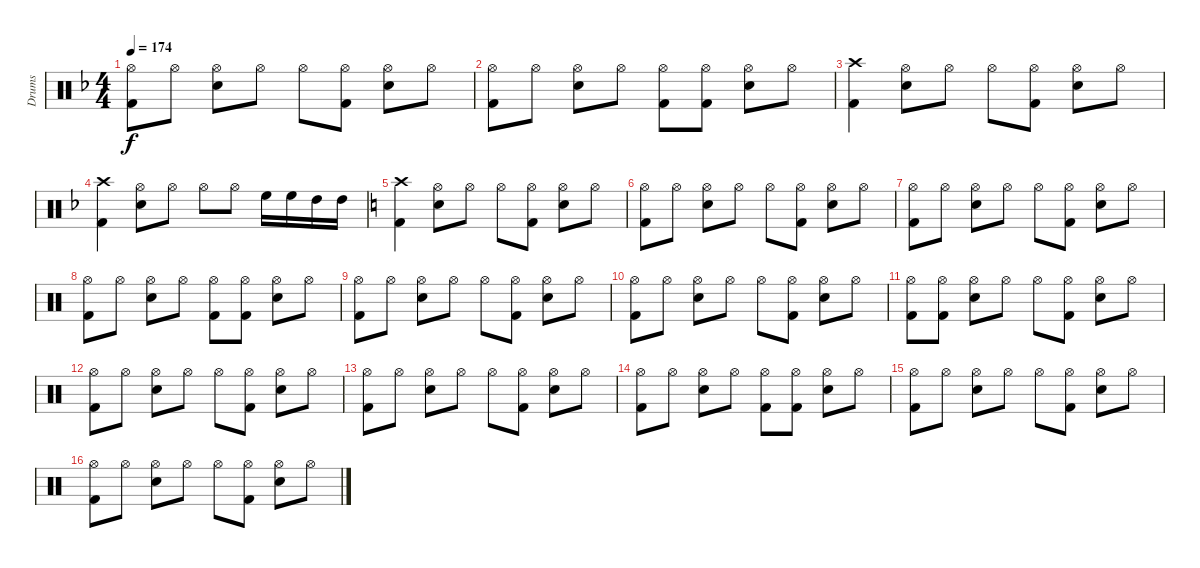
\track ("Drums" "Drums") {instrument percussion}
\staff {score}
\articulation defaults
\ts (4 4)
\tempo 174
\clef neutral
\ks dminor
("Kick (hit) 2" "Hi-Hat (open)").8{dy f} "Hi-Hat (open)".8 ("Snare (hit) 2" "Hi-Hat (open)").8 "Hi-Hat (open)".8 "Hi-Hat (open)".8 ("Kick (hit) 2" "Hi-Hat (open)").8 ("Snare (hit) 2" "Hi-Hat (open)").8 "Hi-Hat (open)".8 |
("Kick (hit) 2" "Hi-Hat (open)").8 "Hi-Hat (open)".8 ("Snare (hit) 2" "Hi-Hat (open)").8 "Hi-Hat (open)".8 ("Kick (hit) 2" "Hi-Hat (open)").8 ("Kick (hit) 2" "Hi-Hat (open)").8 ("Snare (hit) 2" "Hi-Hat (open)").8 "Hi-Hat (open)".8 |
("Kick (hit) 2" "Crash high (hit)").4 ("Snare (hit) 2" "Hi-Hat (open)").8 "Hi-Hat (open)".8 "Hi-Hat (open)".8 ("Kick (hit) 2" "Hi-Hat (open)").8 ("Snare (hit) 2" "Hi-Hat (open)").8 "Hi-Hat (open)".8 |
("Kick (hit) 2" "Crash high (hit)").4 ("Snare (hit) 2" "Hi-Hat (open)").8 "Hi-Hat (open)".8 "Hi-Hat (open)".8 "Hi-Hat (open)".8 "High Floor Tom (hit)".16 "High Floor Tom (hit)".16 "High Tom (hit)".16 "High Tom (hit)".16 |
\ks aminor
("Kick (hit) 2" "Crash high (hit)").4 ("Snare (hit) 2" "Hi-Hat (open)").8 "Hi-Hat (open)".8 "Hi-Hat (open)".8 ("Kick (hit) 2" "Hi-Hat (open)").8 ("Snare (hit) 2" "Hi-Hat (open)").8 "Hi-Hat (open)".8 |
("Kick (hit) 2" "Hi-Hat (open)").8 "Hi-Hat (open)".8 ("Snare (hit) 2" "Hi-Hat (open)").8 "Hi-Hat (open)".8 "Hi-Hat (open)".8 ("Kick (hit) 2" "Hi-Hat (open)").8 ("Snare (hit) 2" "Hi-Hat (open)").8 "Hi-Hat (open)".8 |
("Kick (hit) 2" "Hi-Hat (open)").8 "Hi-Hat (open)".8 ("Snare (hit) 2" "Hi-Hat (open)").8 "Hi-Hat (open)".8 "Hi-Hat (open)".8 ("Kick (hit) 2" "Hi-Hat (open)").8 ("Snare (hit) 2" "Hi-Hat (open)").8 "Hi-Hat (open)".8 |
("Kick (hit) 2" "Hi-Hat (open)").8 "Hi-Hat (open)".8 ("Snare (hit) 2" "Hi-Hat (open)").8 "Hi-Hat (open)".8 ("Kick (hit) 2" "Hi-Hat (open)").8 ("Kick (hit) 2" "Hi-Hat (open)").8 ("Snare (hit) 2" "Hi-Hat (open)").8 "Hi-Hat (open)".8 |
("Kick (hit) 2" "Hi-Hat (open)").8 "Hi-Hat (open)".8 ("Snare (hit) 2" "Hi-Hat (open)").8 "Hi-Hat (open)".8 "Hi-Hat (open)".8 ("Kick (hit) 2" "Hi-Hat (open)").8 ("Snare (hit) 2" "Hi-Hat (open)").8 "Hi-Hat (open)".8 |
("Kick (hit) 2" "Hi-Hat (open)").8 "Hi-Hat (open)".8 ("Snare (hit) 2" "Hi-Hat (open)").8 "Hi-Hat (open)".8 "Hi-Hat (open)".8 ("Kick (hit) 2" "Hi-Hat (open)").8 ("Snare (hit) 2" "Hi-Hat (open)").8 "Hi-Hat (open)".8 |
("Kick (hit) 2" "Hi-Hat (open)").8 ("Kick (hit) 2" "Hi-Hat (open)").8 ("Snare (hit) 2" "Hi-Hat (open)").8 "Hi-Hat (open)".8 "Hi-Hat (open)".8 ("Kick (hit) 2" "Hi-Hat (open)").8 ("Snare (hit) 2" "Hi-Hat (open)").8 "Hi-Hat (open)".8 |
("Kick (hit) 2" "Hi-Hat (open)").8 "Hi-Hat (open)".8 ("Snare (hit) 2" "Hi-Hat (open)").8 "Hi-Hat (open)".8 "Hi-Hat (open)".8 ("Kick (hit) 2" "Hi-Hat (open)").8 ("Snare (hit) 2" "Hi-Hat (open)").8 "Hi-Hat (open)".8 |
("Kick (hit) 2" "Hi-Hat (open)").8 "Hi-Hat (open)".8 ("Snare (hit) 2" "Hi-Hat (open)").8 "Hi-Hat (open)".8 "Hi-Hat (open)".8 ("Kick (hit) 2" "Hi-Hat (open)").8 ("Snare (hit) 2" "Hi-Hat (open)").8 "Hi-Hat (open)".8 |
("Kick (hit) 2" "Hi-Hat (open)").8 "Hi-Hat (open)".8 ("Snare (hit) 2" "Hi-Hat (open)").8 "Hi-Hat (open)".8 ("Kick (hit) 2" "Hi-Hat (open)").8 ("Kick (hit) 2" "Hi-Hat (open)").8 ("Snare (hit) 2" "Hi-Hat (open)").8 "Hi-Hat (open)".8 |
("Kick (hit) 2" "Hi-Hat (open)").8 "Hi-Hat (open)".8 ("Snare (hit) 2" "Hi-Hat (open)").8 "Hi-Hat (open)".8 "Hi-Hat (open)".8 ("Kick (hit) 2" "Hi-Hat (open)").8 ("Snare (hit) 2" "Hi-Hat (open)").8 "Hi-Hat (open)".8 |
("Kick (hit) 2" "Hi-Hat (open)").8 "Hi-Hat (open)".8 ("Snare (hit) 2" "Hi-Hat (open)").8 "Hi-Hat (open)".8 "Hi-Hat (open)".8 ("Kick (hit) 2" "Hi-Hat (open)").8 ("Snare (hit) 2" "Hi-Hat (open)").8 "Hi-Hat (open)".8
